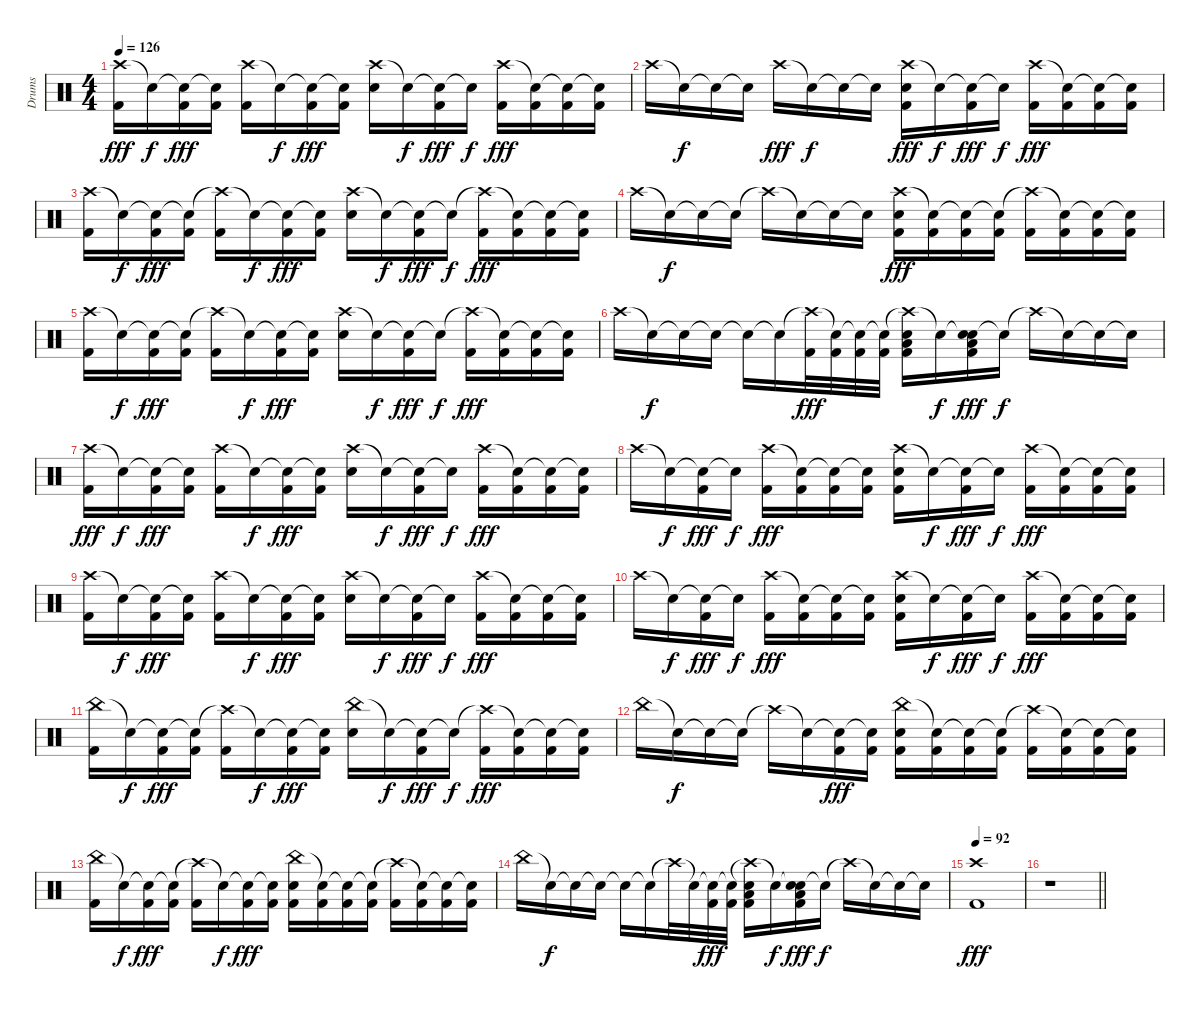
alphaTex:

\track ("Drums" "Drums") {instrument percussion}
\staff {score}
\articulation defaults
\ts (4 4)
\tempo 126
\clef neutral
\ks c
("Crash high (hit)" "Kick (hit) 2").16{dy fff} "Snare (hit)"{t}.16{dy f} ("Snare (hit)"{t} "Kick (hit) 2").16{dy fff} ("Snare (hit)"{t} "Kick (hit) 2").16 ("Crash high (hit)" "Kick (hit) 2").16 "Snare (hit)"{t}.16{dy f} ("Snare (hit)"{t} "Kick (hit) 2").16{dy fff} ("Snare (hit)"{t} "Kick (hit) 2").16 ("Crash high (hit)" "Electric Snare (hit)").16 "Snare (hit)"{t}.16{dy f} ("Snare (hit)"{t} "Kick (hit) 2").16{dy fff} "Snare (hit)"{t}.16{dy f} ("Crash high (hit)" "Kick (hit) 2").16{dy fff} ("Snare (hit)"{t} "Kick (hit) 2").16 ("Snare (hit)"{t} "Kick (hit) 2").16 ("Snare (hit)"{t} "Kick (hit) 2").16 |
"Crash high (hit)".16 "Snare (hit)"{t}.16{dy f} "Snare (hit)"{t}.16 "Snare (hit)"{t}.16 "Crash high (hit)".16{dy fff} "Snare (hit)"{t}.16{dy f} "Snare (hit)"{t}.16 "Snare (hit)"{t}.16 ("Crash high (hit)" "Electric Snare (hit)" "Kick (hit) 2").16{dy fff} "Snare (hit)"{t}.16{dy f} ("Snare (hit)"{t} "Kick (hit) 2").16{dy fff} "Snare (hit)"{t}.16{dy f} ("Crash high (hit)" "Kick (hit) 2").16{dy fff} ("Snare (hit)"{t} "Kick (hit) 2").16 ("Snare (hit)"{t} "Kick (hit) 2").16 ("Snare (hit)"{t} "Kick (hit) 2").16 |
("Crash high (hit)" "Kick (hit) 2").16 "Snare (hit)"{t}.16{dy f} ("Snare (hit)"{t} "Kick (hit) 2").16{dy fff} ("Snare (hit)"{t} "Kick (hit) 2").16 ("Crash high (hit)"{t} "Kick (hit) 2").16 "Snare (hit)"{t}.16{dy f} ("Snare (hit)"{t} "Kick (hit) 2").16{dy fff} ("Snare (hit)"{t} "Kick (hit) 2").16 ("Crash high (hit)" "Electric Snare (hit)").16 "Snare (hit)"{t}.16{dy f} ("Snare (hit)"{t} "Kick (hit) 2").16{dy fff} "Snare (hit)"{t}.16{dy f} ("Crash high (hit)"{t} "Kick (hit) 2").16{dy fff} ("Snare (hit)"{t} "Kick (hit) 2").16 ("Snare (hit)"{t} "Kick (hit) 2").16 ("Snare (hit)"{t} "Kick (hit) 2").16 |
"Crash high (hit)".16 "Snare (hit)"{t}.16{dy f} "Snare (hit)"{t}.16 "Snare (hit)"{t}.16 "Crash high (hit)"{t}.16 "Snare (hit)"{t}.16 "Snare (hit)"{t}.16 "Snare (hit)"{t}.16 ("Crash high (hit)" "Electric Snare (hit)" "Kick (hit) 2").16{dy fff} ("Snare (hit)"{t} "Kick (hit) 2").16 ("Snare (hit)"{t} "Kick (hit) 2").16 ("Snare (hit)"{t} "Kick (hit) 2").16 ("Crash high (hit)"{t} "Kick (hit) 2").16 ("Snare (hit)"{t} "Kick (hit) 2").16 ("Snare (hit)"{t} "Kick (hit) 2").16 ("Snare (hit)"{t} "Kick (hit) 2").16 |
("Crash high (hit)" "Kick (hit) 2").16 "Snare (hit)"{t}.16{dy f} ("Snare (hit)"{t} "Kick (hit) 2").16{dy fff} ("Snare (hit)"{t} "Kick (hit) 2").16 ("Crash high (hit)"{t} "Kick (hit) 2").16 "Snare (hit)"{t}.16{dy f} ("Snare (hit)"{t} "Kick (hit) 2").16{dy fff} ("Snare (hit)"{t} "Kick (hit) 2").16 ("Crash high (hit)" "Electric Snare (hit)").16 "Snare (hit)"{t}.16{dy f} ("Snare (hit)"{t} "Kick (hit) 2").16{dy fff} "Snare (hit)"{t}.16{dy f} ("Crash high (hit)"{t} "Kick (hit) 2").16{dy fff} ("Snare (hit)"{t} "Kick (hit) 2").16 ("Snare (hit)"{t} "Kick (hit) 2").16 ("Snare (hit)"{t} "Kick (hit) 2").16 |
"Crash high (hit)".16 "Snare (hit)"{t}.16{dy f} "Snare (hit)"{t}.16 "Snare (hit)"{t}.16 "Snare (hit)"{t}.16 "Snare (hit)"{t}.16 ("Crash high (hit)"{t} "Kick (hit) 2").32{dy fff} ("Snare (hit)"{t} "Kick (hit) 2").32 ("Snare (hit)"{t} "Kick (hit) 2").32 ("Snare (hit)"{t} "Kick (hit) 2").32 ("Crash high (hit)"{t} "Low Floor Tom (hit)" "Electric Snare (hit)" "Kick (hit) 2").16 "Snare (hit)"{t}.16{dy f} ("Snare (hit)"{t} "Low Floor Tom (hit)" "Electric Snare (hit)" "Kick (hit) 2").16{dy fff} "Snare (hit)"{t}.16{dy f} "Crash high (hit)"{t}.16 "Snare (hit)"{t}.16 "Snare (hit)"{t}.16 "Snare (hit)"{t}.16 |
("Crash high (hit)" "Kick (hit) 2").16{dy fff} "Snare (hit)"{t}.16{dy f} ("Snare (hit)"{t} "Kick (hit) 2").16{dy fff} ("Snare (hit)"{t} "Kick (hit) 2").16 ("Crash high (hit)" "Kick (hit) 2").16 "Snare (hit)"{t}.16{dy f} ("Snare (hit)"{t} "Kick (hit) 2").16{dy fff} ("Snare (hit)"{t} "Kick (hit) 2").16 ("Crash high (hit)" "Electric Snare (hit)").16 "Snare (hit)"{t}.16{dy f} ("Snare (hit)"{t} "Kick (hit) 2").16{dy fff} "Snare (hit)"{t}.16{dy f} ("Crash high (hit)" "Kick (hit) 2").16{dy fff} ("Snare (hit)"{t} "Kick (hit) 2").16 ("Snare (hit)"{t} "Kick (hit) 2").16 ("Snare (hit)"{t} "Kick (hit) 2").16 |
"Crash high (hit)".16 "Snare (hit)"{t}.16{dy f} ("Snare (hit)"{t} "Kick (hit) 2").16{dy fff} "Snare (hit)"{t}.16{dy f} ("Crash high (hit)" "Kick (hit) 2").16{dy fff} ("Snare (hit)"{t} "Kick (hit) 2").16 ("Snare (hit)"{t} "Kick (hit) 2").16 ("Snare (hit)"{t} "Kick (hit) 2").16 ("Crash high (hit)" "Electric Snare (hit)" "Kick (hit) 2").16 "Snare (hit)"{t}.16{dy f} ("Snare (hit)"{t} "Kick (hit) 2").16{dy fff} "Snare (hit)"{t}.16{dy f} ("Crash high (hit)" "Kick (hit) 2").16{dy fff} ("Snare (hit)"{t} "Kick (hit) 2").16 ("Snare (hit)"{t} "Kick (hit) 2").16 ("Snare (hit)"{t} "Kick (hit) 2").16 |
("Crash high (hit)" "Kick (hit) 2").16 "Snare (hit)"{t}.16{dy f} ("Snare (hit)"{t} "Kick (hit) 2").16{dy fff} ("Snare (hit)"{t} "Kick (hit) 2").16 ("Crash high (hit)" "Kick (hit) 2").16 "Snare (hit)"{t}.16{dy f} ("Snare (hit)"{t} "Kick (hit) 2").16{dy fff} ("Snare (hit)"{t} "Kick (hit) 2").16 ("Crash high (hit)" "Electric Snare (hit)").16 "Snare (hit)"{t}.16{dy f} ("Snare (hit)"{t} "Kick (hit) 2").16{dy fff} "Snare (hit)"{t}.16{dy f} ("Crash high (hit)" "Kick (hit) 2").16{dy fff} ("Snare (hit)"{t} "Kick (hit) 2").16 ("Snare (hit)"{t} "Kick (hit) 2").16 ("Snare (hit)"{t} "Kick (hit) 2").16 |
"Crash high (hit)".16 "Snare (hit)"{t}.16{dy f} ("Snare (hit)"{t} "Kick (hit) 2").16{dy fff} "Snare (hit)"{t}.16{dy f} ("Crash high (hit)" "Kick (hit) 2").16{dy fff} ("Snare (hit)"{t} "Kick (hit) 2").16 ("Snare (hit)"{t} "Kick (hit) 2").16 ("Snare (hit)"{t} "Kick (hit) 2").16 ("Crash high (hit)" "Electric Snare (hit)" "Kick (hit) 2").16 "Snare (hit)"{t}.16{dy f} ("Snare (hit)"{t} "Kick (hit) 2").16{dy fff} "Snare (hit)"{t}.16{dy f} ("Crash high (hit)" "Kick (hit) 2").16{dy fff} ("Snare (hit)"{t} "Kick (hit) 2").16 ("Snare (hit)"{t} "Kick (hit) 2").16 ("Snare (hit)"{t} "Kick (hit) 2").16 |
("China (hit)" "Kick (hit) 2").16 "Snare (hit)"{t}.16{dy f} ("Snare (hit)"{t} "Kick (hit) 2").16{dy fff} ("Snare (hit)"{t} "Kick (hit) 2").16 ("Crash high (hit)"{t} "Kick (hit) 2").16 "Snare (hit)"{t}.16{dy f} ("Snare (hit)"{t} "Kick (hit) 2").16{dy fff} ("Snare (hit)"{t} "Kick (hit) 2").16 ("China (hit)" "Electric Snare (hit)").16 "Snare (hit)"{t}.16{dy f} ("Snare (hit)"{t} "Kick (hit) 2").16{dy fff} "Snare (hit)"{t}.16{dy f} ("Crash high (hit)"{t} "Kick (hit) 2").16{dy fff} ("Snare (hit)"{t} "Kick (hit) 2").16 ("Snare (hit)"{t} "Kick (hit) 2").16 ("Snare (hit)"{t} "Kick (hit) 2").16 |
"China (hit)".16 "Snare (hit)"{t}.16{dy f} "Snare (hit)"{t}.16 "Snare (hit)"{t}.16 "Crash high (hit)"{t}.16 "Snare (hit)"{t}.16 ("Snare (hit)"{t} "Kick (hit) 2").16{dy fff} ("Snare (hit)"{t} "Kick (hit) 2").16 ("China (hit)" "Electric Snare (hit)" "Kick (hit) 2").16 ("Snare (hit)"{t} "Kick (hit) 2").16 ("Snare (hit)"{t} "Kick (hit) 2").16 ("Snare (hit)"{t} "Kick (hit) 2").16 ("Crash high (hit)"{t} "Kick (hit) 2").16 ("Snare (hit)"{t} "Kick (hit) 2").16 ("Snare (hit)"{t} "Kick (hit) 2").16 ("Snare (hit)"{t} "Kick (hit) 2").16 |
("China (hit)" "Kick (hit) 2").16 "Snare (hit)"{t}.16{dy f} ("Snare (hit)"{t} "Kick (hit) 2").16{dy fff} ("Snare (hit)"{t} "Kick (hit) 2").16 ("Crash high (hit)"{t} "Kick (hit) 2").16 "Snare (hit)"{t}.16{dy f} ("Snare (hit)"{t} "Kick (hit) 2").16{dy fff} ("Snare (hit)"{t} "Kick (hit) 2").16 ("China (hit)" "Electric Snare (hit)" "Kick (hit) 2").16 ("Snare (hit)"{t} "Kick (hit) 2").16 ("Snare (hit)"{t} "Kick (hit) 2").16 ("Snare (hit)"{t} "Kick (hit) 2").16 ("Crash high (hit)"{t} "Kick (hit) 2").16 ("Snare (hit)"{t} "Kick (hit) 2").16 ("Snare (hit)"{t} "Kick (hit) 2").16 ("Snare (hit)"{t} "Kick (hit) 2").16 |
"China (hit)".16 "Snare (hit)"{t}.16{dy f} "Snare (hit)"{t}.16 "Snare (hit)"{t}.16 "Snare (hit)"{t}.16 "Snare (hit)"{t}.16 "Crash high (hit)"{t}.32 "Snare (hit)"{t}.32 ("Snare (hit)"{t} "Kick (hit) 2").32{dy fff} ("Snare (hit)"{t} "Kick (hit) 2").32 ("Crash high (hit)"{t} "Low Floor Tom (hit)" "Electric Snare (hit)" "Kick (hit) 2").16 "Snare (hit)"{t}.16{dy f} ("Snare (hit)"{t} "Low Floor Tom (hit)" "Electric Snare (hit)" "Kick (hit) 2").16{dy fff} "Snare (hit)"{t}.16{dy f} "Crash high (hit)"{t}.16 "Snare (hit)"{t}.16 "Snare (hit)"{t}.16 "Snare (hit)"{t}.16 |
\tempo 92
("Crash high (hit)" "Kick (hit) 2").1{dy fff} |
\barLineRight lightlight
r.1
